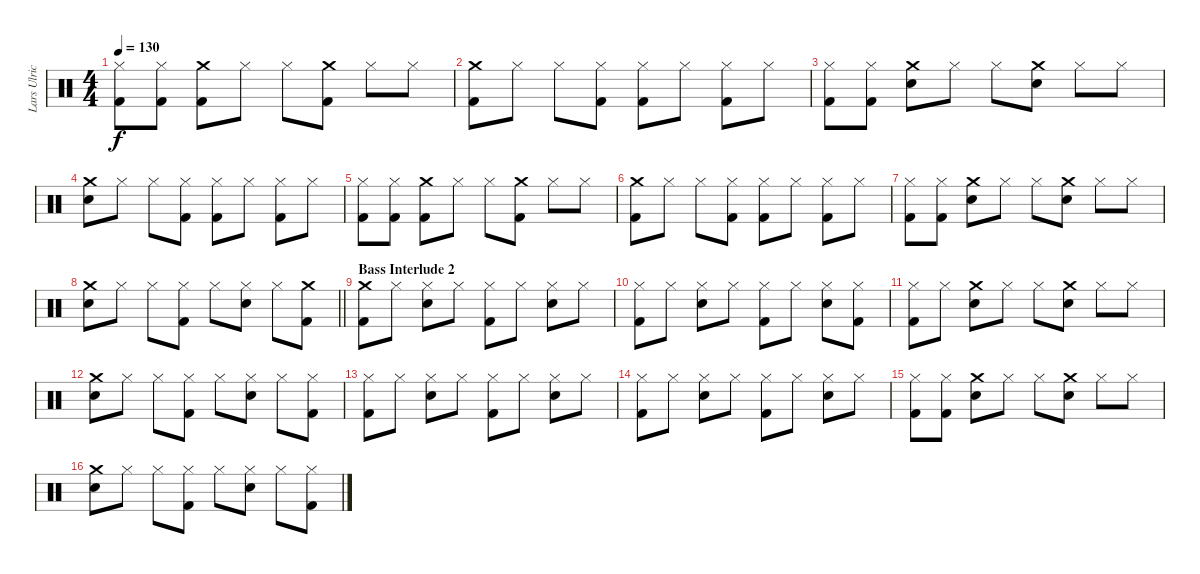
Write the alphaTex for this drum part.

\track ("Lars Ulrich (Drums)" "Lars Ulric") {instrument percussion}
\staff {score}
\articulation defaults
\ts (4 4)
\tempo 130
\clef neutral
\ks c
("Hi-Hat (closed)" "Kick (hit) 2").8{dy f} ("Hi-Hat (closed)" "Kick (hit) 2").8 ("Kick (hit) 2" "Crash medium (hit)").8 "Hi-Hat (closed)".8 "Hi-Hat (closed)".8 ("Crash medium (hit)" "Kick (hit) 2").8 "Hi-Hat (closed)".8 "Hi-Hat (closed)".8 |
("Crash medium (hit)" "Kick (hit) 2").8 "Hi-Hat (closed)".8 "Hi-Hat (closed)".8 ("Hi-Hat (closed)" "Kick (hit) 2").8 ("Hi-Hat (closed)" "Kick (hit) 2").8 "Hi-Hat (closed)".8 ("Hi-Hat (closed)" "Kick (hit) 2").8 "Hi-Hat (closed)".8 |
("Hi-Hat (closed)" "Kick (hit) 2").8 ("Hi-Hat (closed)" "Kick (hit) 2").8 ("Crash medium (hit)" "Snare (hit) 2").8 "Hi-Hat (closed)".8 "Hi-Hat (closed)".8 ("Crash medium (hit)" "Snare (hit) 2").8 "Hi-Hat (closed)".8 "Hi-Hat (closed)".8 |
("Crash medium (hit)" "Snare (hit) 2").8 "Hi-Hat (closed)".8 "Hi-Hat (closed)".8 ("Kick (hit) 2" "Hi-Hat (closed)").8 ("Hi-Hat (closed)" "Kick (hit) 2").8 "Hi-Hat (closed)".8 ("Hi-Hat (closed)" "Kick (hit) 2").8 "Hi-Hat (closed)".8 |
("Hi-Hat (closed)" "Kick (hit) 2").8 ("Hi-Hat (closed)" "Kick (hit) 2").8 ("Kick (hit) 2" "Crash medium (hit)").8 "Hi-Hat (closed)".8 "Hi-Hat (closed)".8 ("Crash medium (hit)" "Kick (hit) 2").8 "Hi-Hat (closed)".8 "Hi-Hat (closed)".8 |
("Crash medium (hit)" "Kick (hit) 2").8 "Hi-Hat (closed)".8 "Hi-Hat (closed)".8 ("Hi-Hat (closed)" "Kick (hit) 2").8 ("Hi-Hat (closed)" "Kick (hit) 2").8 "Hi-Hat (closed)".8 ("Hi-Hat (closed)" "Kick (hit) 2").8 "Hi-Hat (closed)".8 |
("Hi-Hat (closed)" "Kick (hit) 2").8 ("Hi-Hat (closed)" "Kick (hit) 2").8 ("Crash medium (hit)" "Snare (hit) 2").8 "Hi-Hat (closed)".8 "Hi-Hat (closed)".8 ("Crash medium (hit)" "Snare (hit) 2").8 "Hi-Hat (closed)".8 "Hi-Hat (closed)".8 |
\barLineRight lightlight
("Crash medium (hit)" "Snare (hit) 2").8 "Hi-Hat (closed)".8 "Hi-Hat (closed)".8 ("Kick (hit) 2" "Hi-Hat (closed)").8 "Hi-Hat (closed)".8 ("Snare (hit) 2" "Hi-Hat (closed)").8 "Hi-Hat (closed)".8 ("Crash medium (hit)" "Kick (hit) 2").8 |
\section ("" "Bass Interlude 2")
("Crash medium (hit)" "Kick (hit) 2").8 "Hi-Hat (closed)".8 ("Snare (hit) 2" "Hi-Hat (closed)").8 "Hi-Hat (closed)".8 ("Hi-Hat (closed)" "Kick (hit) 2").8 "Hi-Hat (closed)".8 ("Snare (hit) 2" "Hi-Hat (closed)").8 "Hi-Hat (closed)".8 |
("Hi-Hat (closed)" "Kick (hit) 2").8 "Hi-Hat (closed)".8 ("Snare (hit) 2" "Hi-Hat (closed)").8 "Hi-Hat (closed)".8 ("Hi-Hat (closed)" "Kick (hit) 2").8 "Hi-Hat (closed)".8 ("Snare (hit) 2" "Hi-Hat (closed)").8 ("Hi-Hat (closed)" "Kick (hit) 2").8 |
("Hi-Hat (closed)" "Kick (hit) 2").8 "Hi-Hat (closed)".8 ("Crash medium (hit)" "Snare (hit) 2").8 "Hi-Hat (closed)".8 "Hi-Hat (closed)".8 ("Crash medium (hit)" "Snare (hit) 2").8 "Hi-Hat (closed)".8 "Hi-Hat (closed)".8 |
("Crash medium (hit)" "Snare (hit) 2").8 "Hi-Hat (closed)".8 "Hi-Hat (closed)".8 ("Hi-Hat (closed)" "Kick (hit) 2").8 "Hi-Hat (closed)".8 ("Snare (hit) 2" "Hi-Hat (closed)").8 "Hi-Hat (closed)".8 ("Hi-Hat (closed)" "Kick (hit) 2").8 |
("Hi-Hat (closed)" "Kick (hit) 2").8 "Hi-Hat (closed)".8 ("Snare (hit) 2" "Hi-Hat (closed)").8 "Hi-Hat (closed)".8 ("Hi-Hat (closed)" "Kick (hit) 2").8 "Hi-Hat (closed)".8 ("Snare (hit) 2" "Hi-Hat (closed)").8 "Hi-Hat (closed)".8 |
("Hi-Hat (closed)" "Kick (hit) 2").8 "Hi-Hat (closed)".8 ("Snare (hit) 2" "Hi-Hat (closed)").8 "Hi-Hat (closed)".8 ("Hi-Hat (closed)" "Kick (hit) 2").8 "Hi-Hat (closed)".8 ("Snare (hit) 2" "Hi-Hat (closed)").8 "Hi-Hat (closed)".8 |
("Hi-Hat (closed)" "Kick (hit) 2").8 ("Hi-Hat (closed)" "Kick (hit) 2").8 ("Crash medium (hit)" "Snare (hit) 2").8 "Hi-Hat (closed)".8 "Hi-Hat (closed)".8 ("Crash medium (hit)" "Snare (hit) 2").8 "Hi-Hat (closed)".8 "Hi-Hat (closed)".8 |
("Crash medium (hit)" "Snare (hit) 2").8 "Hi-Hat (closed)".8 "Hi-Hat (closed)".8 ("Kick (hit) 2" "Hi-Hat (closed)").8 "Hi-Hat (closed)".8 ("Snare (hit) 2" "Hi-Hat (closed)").8 "Hi-Hat (closed)".8 ("Hi-Hat (closed)" "Kick (hit) 2").8
